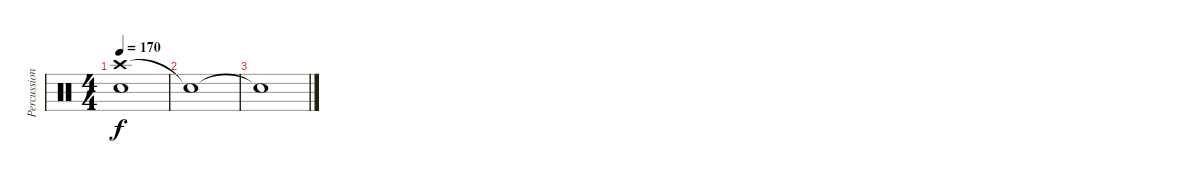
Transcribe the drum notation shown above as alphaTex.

\track ("Percussion" "Percussion") {instrument percussion}
\staff {score}
\articulation defaults
\ts (4 4)
\tempo 170
\clef neutral
\ks c
("Crash high (hit)" "Snare (hit) 2").1{dy f} |
"Snare (hit)"{t}.1 |
"Snare (hit)"{t}.1
